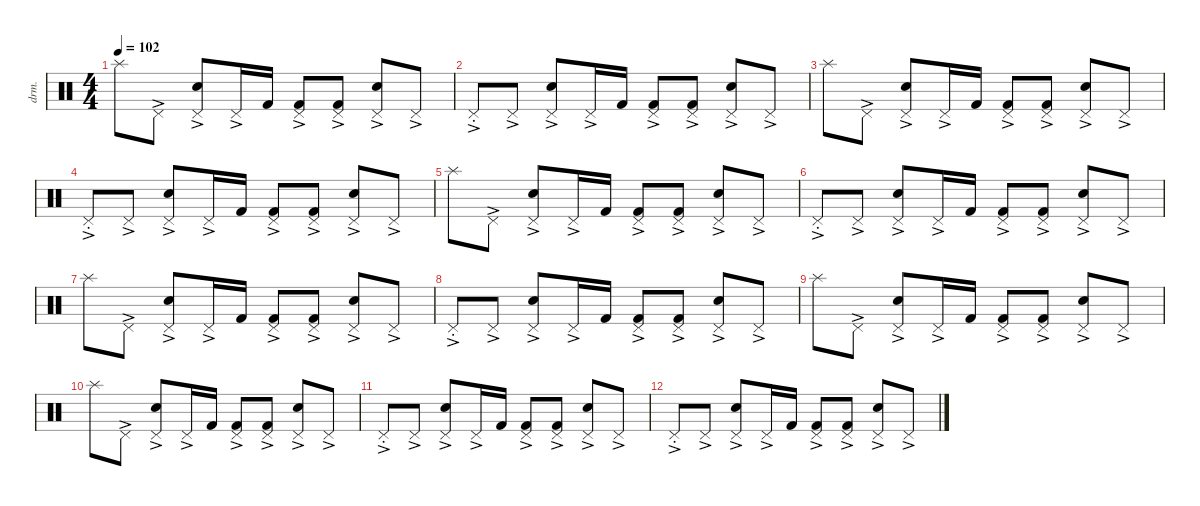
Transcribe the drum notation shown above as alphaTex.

\defaultSystemsLayout 4
\hideDynamics
\bracketExtendMode nobrackets
\multiBarRest
\otherSystemsTrackNameOrientation horizontal
\track ("Drumkit" "drm.") {instrument percussion}
\staff {score}
\articulation defaults
\ts (4 4)
\tempo 102
\clef neutral
\ks c "Splash (hit)".8{dy p beam Down} "Pedal Hi-Hat (hit)"{ac}.8{beam Down}
("Snare (hit) 2" "Pedal Hi-Hat (hit)"{ac}).8{beam Up} "Pedal Hi-Hat (hit)"{ac}.16{beam Up} "Kick (hit) 2".16{beam Up} ("Kick (hit) 2" "Pedal Hi-Hat (hit)"{ac}).8{beam Up} ("Pedal Hi-Hat (hit)"{ac} "Kick (hit) 2").8{beam Up} ("Pedal Hi-Hat (hit)"{ac} "Snare (hit) 2").8{beam Up} "Pedal Hi-Hat (hit)"{ac}.8{beam Up} |
"Pedal Hi-Hat (hit)"{ac st}.8{beam Up} "Pedal Hi-Hat (hit)"{ac}.8{beam Up} ("Snare (hit) 2" "Pedal Hi-Hat (hit)"{ac}).8{beam Up} "Pedal Hi-Hat (hit)"{ac}.16{beam Up} "Kick (hit) 2".16{beam Up} ("Kick (hit) 2" "Pedal Hi-Hat (hit)"{ac}).8{beam Up} ("Pedal Hi-Hat (hit)"{ac} "Kick (hit) 2").8{beam Up} ("Pedal Hi-Hat (hit)"{ac} "Snare (hit) 2").8{beam Up} "Pedal Hi-Hat (hit)"{ac}.8{beam Up} |
"Splash (hit)".8{beam Down} "Pedal Hi-Hat (hit)"{ac}.8{beam Down} ("Snare (hit) 2" "Pedal Hi-Hat (hit)"{ac}).8{beam Up} "Pedal Hi-Hat (hit)"{ac}.16{beam Up} "Kick (hit) 2".16{beam Up} ("Kick (hit) 2" "Pedal Hi-Hat (hit)"{ac}).8{beam Up} ("Pedal Hi-Hat (hit)"{ac} "Kick (hit) 2").8{beam Up} ("Pedal Hi-Hat (hit)"{ac} "Snare (hit) 2").8{beam Up} "Pedal Hi-Hat (hit)"{ac}.8{beam Up} |
"Pedal Hi-Hat (hit)"{ac st}.8{beam Up} "Pedal Hi-Hat (hit)"{ac}.8{beam Up} ("Snare (hit) 2" "Pedal Hi-Hat (hit)"{ac}).8{beam Up} "Pedal Hi-Hat (hit)"{ac}.16{beam Up} "Kick (hit) 2".16{beam Up} ("Kick (hit) 2" "Pedal Hi-Hat (hit)"{ac}).8{beam Up} ("Pedal Hi-Hat (hit)"{ac} "Kick (hit) 2").8{beam Up} ("Pedal Hi-Hat (hit)"{ac} "Snare (hit) 2").8{beam Up} "Pedal Hi-Hat (hit)"{ac}.8{beam Up} |
"Splash (hit)".8{beam Down} "Pedal Hi-Hat (hit)"{ac}.8{beam Down} ("Snare (hit) 2" "Pedal Hi-Hat (hit)"{ac}).8{beam Up} "Pedal Hi-Hat (hit)"{ac}.16{beam Up} "Kick (hit) 2".16{beam Up} ("Kick (hit) 2" "Pedal Hi-Hat (hit)"{ac}).8{beam Up} ("Pedal Hi-Hat (hit)"{ac} "Kick (hit) 2").8{beam Up} ("Pedal Hi-Hat (hit)"{ac} "Snare (hit) 2").8{beam Up} "Pedal Hi-Hat (hit)"{ac}.8{beam Up} |
"Pedal Hi-Hat (hit)"{ac st}.8{beam Up} "Pedal Hi-Hat (hit)"{ac}.8{beam Up} ("Snare (hit) 2" "Pedal Hi-Hat (hit)"{ac}).8{beam Up} "Pedal Hi-Hat (hit)"{ac}.16{beam Up} "Kick (hit) 2".16{beam Up} ("Kick (hit) 2" "Pedal Hi-Hat (hit)"{ac}).8{beam Up} ("Pedal Hi-Hat (hit)"{ac} "Kick (hit) 2").8{beam Up} ("Pedal Hi-Hat (hit)"{ac} "Snare (hit) 2").8{beam Up} "Pedal Hi-Hat (hit)"{ac}.8{beam Up} |
"Splash (hit)".8{beam Down} "Pedal Hi-Hat (hit)"{ac}.8{beam Down} ("Snare (hit) 2" "Pedal Hi-Hat (hit)"{ac}).8{beam Up} "Pedal Hi-Hat (hit)"{ac}.16{beam Up} "Kick (hit) 2".16{beam Up} ("Kick (hit) 2" "Pedal Hi-Hat (hit)"{ac}).8{beam Up} ("Pedal Hi-Hat (hit)"{ac} "Kick (hit) 2").8{beam Up} ("Pedal Hi-Hat (hit)"{ac} "Snare (hit) 2").8{beam Up} "Pedal Hi-Hat (hit)"{ac}.8{beam Up} |
"Pedal Hi-Hat (hit)"{ac st}.8{beam Up} "Pedal Hi-Hat (hit)"{ac}.8{beam Up} ("Snare (hit) 2" "Pedal Hi-Hat (hit)"{ac}).8{beam Up} "Pedal Hi-Hat (hit)"{ac}.16{beam Up} "Kick (hit) 2".16{beam Up} ("Kick (hit) 2" "Pedal Hi-Hat (hit)"{ac}).8{beam Up} ("Pedal Hi-Hat (hit)"{ac} "Kick (hit) 2").8{beam Up} ("Pedal Hi-Hat (hit)"{ac} "Snare (hit) 2").8{beam Up} "Pedal Hi-Hat (hit)"{ac}.8{beam Up} |
"Splash (hit)".8{beam Down} "Pedal Hi-Hat (hit)"{ac}.8{beam Down} ("Snare (hit) 2" "Pedal Hi-Hat (hit)"{ac}).8{beam Up} "Pedal Hi-Hat (hit)"{ac}.16{beam Up} "Kick (hit) 2".16{beam Up} ("Kick (hit) 2" "Pedal Hi-Hat (hit)"{ac}).8{beam Up} ("Pedal Hi-Hat (hit)"{ac} "Kick (hit) 2").8{beam Up} ("Pedal Hi-Hat (hit)"{ac} "Snare (hit) 2").8{beam Up} "Pedal Hi-Hat (hit)"{ac}.8{beam Up} |
"Splash (hit)".8{beam Down} "Pedal Hi-Hat (hit)"{ac}.8{beam Down} ("Snare (hit) 2" "Pedal Hi-Hat (hit)"{ac}).8{beam Up} "Pedal Hi-Hat (hit)"{ac}.16{beam Up} "Kick (hit) 2".16{beam Up} ("Kick (hit) 2" "Pedal Hi-Hat (hit)"{ac}).8{beam Up} ("Pedal Hi-Hat (hit)"{ac} "Kick (hit) 2").8{beam Up} ("Pedal Hi-Hat (hit)"{ac} "Snare (hit) 2").8{beam Up} "Pedal Hi-Hat (hit)"{ac}.8{beam Up} |
"Pedal Hi-Hat (hit)"{ac st}.8{beam Up} "Pedal Hi-Hat (hit)"{ac}.8{beam Up} ("Snare (hit) 2" "Pedal Hi-Hat (hit)"{ac}).8{beam Up} "Pedal Hi-Hat (hit)"{ac}.16{beam Up} "Kick (hit) 2".16{beam Up} ("Kick (hit) 2" "Pedal Hi-Hat (hit)"{ac}).8{beam Up} ("Pedal Hi-Hat (hit)"{ac} "Kick (hit) 2").8{beam Up} ("Pedal Hi-Hat (hit)"{ac} "Snare (hit) 2").8{beam Up} "Pedal Hi-Hat (hit)"{ac}.8{beam Up} |
"Pedal Hi-Hat (hit)"{ac st}.8{beam Up} "Pedal Hi-Hat (hit)"{ac}.8{beam Up} ("Snare (hit) 2" "Pedal Hi-Hat (hit)"{ac}).8{beam Up} "Pedal Hi-Hat (hit)"{ac}.16{beam Up} "Kick (hit) 2".16{beam Up} ("Kick (hit) 2" "Pedal Hi-Hat (hit)"{ac}).8{beam Up} ("Pedal Hi-Hat (hit)"{ac} "Kick (hit) 2").8{beam Up} ("Pedal Hi-Hat (hit)"{ac} "Snare (hit) 2").8{beam Up} "Pedal Hi-Hat (hit)"{ac}.8{beam Up}
